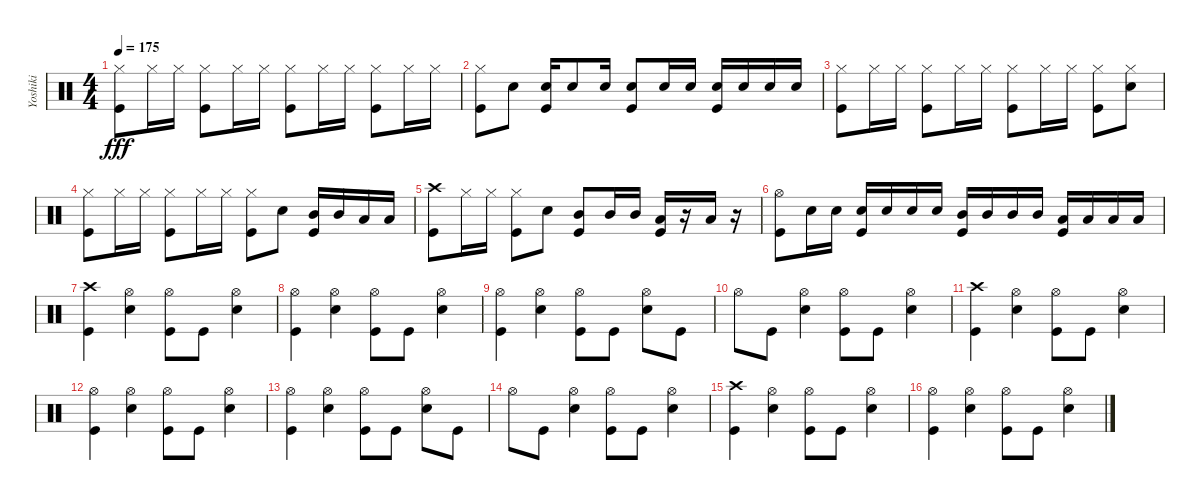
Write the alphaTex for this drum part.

\track ("Yoshiki" "Yoshiki") {instrument percussion}
\staff {score}
\articulation defaults
\ts (4 4)
\tempo 175
\clef neutral
\ks c
("Hi-Hat (closed)" "Kick (hit)").8{dy fff} "Hi-Hat (closed)".16 "Hi-Hat (closed)".16 ("Hi-Hat (closed)" "Kick (hit)").8 "Hi-Hat (closed)".16 "Hi-Hat (closed)".16 ("Hi-Hat (closed)" "Kick (hit)").8 "Hi-Hat (closed)".16 "Hi-Hat (closed)".16 ("Hi-Hat (closed)" "Kick (hit)").8 "Hi-Hat (closed)".16 "Hi-Hat (closed)".16 |
("Hi-Hat (closed)" "Kick (hit)").8 "Snare (hit) 2".8 ("Snare (hit) 2" "Kick (hit)").16 "Snare (hit) 2".8 "Snare (hit) 2".16 ("Snare (hit) 2" "Kick (hit)").8 "Snare (hit) 2".16 "Snare (hit) 2".16 ("Snare (hit) 2" "Kick (hit)").16 "Snare (hit) 2".16 "Snare (hit) 2".16 "Snare (hit) 2".16 |
("Hi-Hat (closed)" "Kick (hit)").8 "Hi-Hat (closed)".16 "Hi-Hat (closed)".16 ("Hi-Hat (closed)" "Kick (hit)").8 "Hi-Hat (closed)".16 "Hi-Hat (closed)".16 ("Hi-Hat (closed)" "Kick (hit)").8 "Hi-Hat (closed)".16 "Hi-Hat (closed)".16 ("Hi-Hat (closed)" "Kick (hit)").8 ("Hi-Hat (closed)" "Snare (hit) 2").8 |
("Hi-Hat (closed)" "Kick (hit)").8 "Hi-Hat (closed)".16 "Hi-Hat (closed)".16 ("Hi-Hat (closed)" "Kick (hit)").8 "Hi-Hat (closed)".16 "Hi-Hat (closed)".16 ("Hi-Hat (closed)" "Kick (hit)").8 "Snare (hit) 2".8 ("Mid Tom (hit)" "Kick (hit)").16 "Mid Tom (hit)".16 "Low Tom (hit)".16 "Low Tom (hit)".16 |
("Crash high (hit)" "Kick (hit)").8 "Hi-Hat (closed)".16 "Hi-Hat (closed)".16 ("Hi-Hat (closed)" "Kick (hit)").8 "Snare (hit) 2".8 ("Mid Tom (hit)" "Kick (hit)").8 "Mid Tom (hit)".16 "Mid Tom (hit)".16 ("Low Tom (hit)" "Kick (hit)").16 r.16 "Low Tom (hit)".16 r.16 |
("Hi-Hat (open)" "Kick (hit)").8 "Snare (hit) 2".16 "Snare (hit) 2".16 ("Snare (hit) 2" "Kick (hit)").16 "Snare (hit) 2".16 "Snare (hit) 2".16 "Snare (hit) 2".16 ("Mid Tom (hit)" "Kick (hit)").16 "Mid Tom (hit)".16 "Mid Tom (hit)".16 "Mid Tom (hit)".16 ("Low Tom (hit)" "Kick (hit)").16 "Low Tom (hit)".16 "Low Tom (hit)".16 "Low Tom (hit)".16 |
("Crash high (hit)" "Kick (hit)").4 ("Hi-Hat (open)" "Snare (hit) 2").4 ("Hi-Hat (open)" "Kick (hit)").8 "Kick (hit)".8 ("Hi-Hat (open)" "Snare (hit) 2").4 |
("Hi-Hat (open)" "Kick (hit)").4 ("Hi-Hat (open)" "Snare (hit) 2").4 ("Hi-Hat (open)" "Kick (hit)").8 "Kick (hit)".8 ("Hi-Hat (open)" "Snare (hit) 2").4 |
("Hi-Hat (open)" "Kick (hit)").4 ("Hi-Hat (open)" "Snare (hit) 2").4 ("Hi-Hat (open)" "Kick (hit)").8 "Kick (hit)".8 ("Hi-Hat (open)" "Snare (hit) 2").8 "Kick (hit)".8 |
"Hi-Hat (open)".8 "Kick (hit)".8 ("Hi-Hat (open)" "Snare (hit) 2").4 ("Hi-Hat (open)" "Kick (hit)").8 "Kick (hit)".8 ("Hi-Hat (open)" "Snare (hit) 2").4 |
("Crash high (hit)" "Kick (hit)").4 ("Hi-Hat (open)" "Snare (hit) 2").4 ("Hi-Hat (open)" "Kick (hit)").8 "Kick (hit)".8 ("Hi-Hat (open)" "Snare (hit) 2").4 |
("Hi-Hat (open)" "Kick (hit)").4 ("Hi-Hat (open)" "Snare (hit) 2").4 ("Hi-Hat (open)" "Kick (hit)").8 "Kick (hit)".8 ("Hi-Hat (open)" "Snare (hit) 2").4 |
("Hi-Hat (open)" "Kick (hit)").4 ("Hi-Hat (open)" "Snare (hit) 2").4 ("Hi-Hat (open)" "Kick (hit)").8 "Kick (hit)".8 ("Hi-Hat (open)" "Snare (hit) 2").8 "Kick (hit)".8 |
"Hi-Hat (open)".8 "Kick (hit)".8 ("Hi-Hat (open)" "Snare (hit) 2").4 ("Hi-Hat (open)" "Kick (hit)").8 "Kick (hit)".8 ("Hi-Hat (open)" "Snare (hit) 2").4 |
("Crash high (hit)" "Kick (hit)").4 ("Hi-Hat (open)" "Snare (hit) 2").4 ("Hi-Hat (open)" "Kick (hit)").8 "Kick (hit)".8 ("Hi-Hat (open)" "Snare (hit) 2").4 |
("Hi-Hat (open)" "Kick (hit)").4 ("Hi-Hat (open)" "Snare (hit) 2").4 ("Hi-Hat (open)" "Kick (hit)").8 "Kick (hit)".8 ("Hi-Hat (open)" "Snare (hit) 2").4
